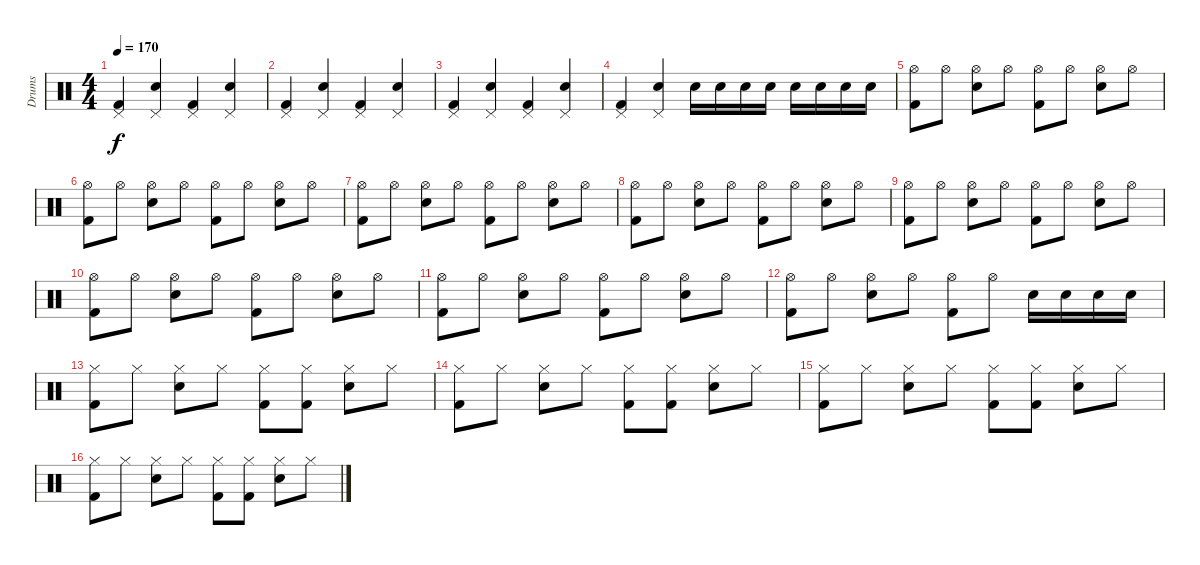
\track ("Drums" "Drums") {instrument percussion}
\staff {score}
\articulation defaults
\ts (4 4)
\tempo 170
\clef neutral
\ks c
("Pedal Hi-Hat (hit)" "Kick (hit) 2").4{dy f} ("Pedal Hi-Hat (hit)" "Snare (hit) 2").4 ("Pedal Hi-Hat (hit)" "Kick (hit) 2").4 ("Pedal Hi-Hat (hit)" "Snare (hit) 2").4 |
("Pedal Hi-Hat (hit)" "Kick (hit) 2").4 ("Pedal Hi-Hat (hit)" "Snare (hit) 2").4 ("Pedal Hi-Hat (hit)" "Kick (hit) 2").4 ("Pedal Hi-Hat (hit)" "Snare (hit) 2").4 |
("Pedal Hi-Hat (hit)" "Kick (hit) 2").4 ("Pedal Hi-Hat (hit)" "Snare (hit) 2").4 ("Pedal Hi-Hat (hit)" "Kick (hit) 2").4 ("Pedal Hi-Hat (hit)" "Snare (hit) 2").4 |
("Pedal Hi-Hat (hit)" "Kick (hit) 2").4 ("Pedal Hi-Hat (hit)" "Snare (hit) 2").4 "Snare (hit) 2".16 "Snare (hit) 2".16 "Snare (hit) 2".16 "Snare (hit) 2".16 "Snare (hit) 2".16 "Snare (hit) 2".16 "Snare (hit) 2".16 "Snare (hit) 2".16 |
("Kick (hit) 2" "Hi-Hat (open)").8 "Hi-Hat (open)".8 ("Snare (hit) 2" "Hi-Hat (open)").8 "Hi-Hat (open)".8 ("Kick (hit) 2" "Hi-Hat (open)").8 "Hi-Hat (open)".8 ("Snare (hit) 2" "Hi-Hat (open)").8 "Hi-Hat (open)".8 |
("Kick (hit) 2" "Hi-Hat (open)").8 "Hi-Hat (open)".8 ("Snare (hit) 2" "Hi-Hat (open)").8 "Hi-Hat (open)".8 ("Kick (hit) 2" "Hi-Hat (open)").8 "Hi-Hat (open)".8 ("Snare (hit) 2" "Hi-Hat (open)").8 "Hi-Hat (open)".8 |
("Kick (hit) 2" "Hi-Hat (open)").8 "Hi-Hat (open)".8 ("Snare (hit) 2" "Hi-Hat (open)").8 "Hi-Hat (open)".8 ("Kick (hit) 2" "Hi-Hat (open)").8 "Hi-Hat (open)".8 ("Snare (hit) 2" "Hi-Hat (open)").8 "Hi-Hat (open)".8 |
("Kick (hit) 2" "Hi-Hat (open)").8 "Hi-Hat (open)".8 ("Snare (hit) 2" "Hi-Hat (open)").8 "Hi-Hat (open)".8 ("Kick (hit) 2" "Hi-Hat (open)").8 "Hi-Hat (open)".8 ("Snare (hit) 2" "Hi-Hat (open)").8 "Hi-Hat (open)".8 |
("Kick (hit) 2" "Hi-Hat (open)").8 "Hi-Hat (open)".8 ("Snare (hit) 2" "Hi-Hat (open)").8 "Hi-Hat (open)".8 ("Kick (hit) 2" "Hi-Hat (open)").8 "Hi-Hat (open)".8 ("Snare (hit) 2" "Hi-Hat (open)").8 "Hi-Hat (open)".8 |
("Kick (hit) 2" "Hi-Hat (open)").8 "Hi-Hat (open)".8 ("Snare (hit) 2" "Hi-Hat (open)").8 "Hi-Hat (open)".8 ("Kick (hit) 2" "Hi-Hat (open)").8 "Hi-Hat (open)".8 ("Snare (hit) 2" "Hi-Hat (open)").8 "Hi-Hat (open)".8 |
("Kick (hit) 2" "Hi-Hat (open)").8 "Hi-Hat (open)".8 ("Snare (hit) 2" "Hi-Hat (open)").8 "Hi-Hat (open)".8 ("Kick (hit) 2" "Hi-Hat (open)").8 "Hi-Hat (open)".8 ("Snare (hit) 2" "Hi-Hat (open)").8 "Hi-Hat (open)".8 |
("Kick (hit) 2" "Hi-Hat (open)").8 "Hi-Hat (open)".8 ("Snare (hit) 2" "Hi-Hat (open)").8 "Hi-Hat (open)".8 ("Kick (hit) 2" "Hi-Hat (open)").8 "Hi-Hat (open)".8 "Snare (hit) 2".16 "Snare (hit) 2".16 "Snare (hit) 2".16 "Snare (hit) 2".16 |
("Hi-Hat (closed)" "Kick (hit) 2").8 "Hi-Hat (closed)".8 ("Hi-Hat (closed)" "Snare (hit) 2").8 "Hi-Hat (closed)".8 ("Hi-Hat (closed)" "Kick (hit) 2").8 ("Hi-Hat (closed)" "Kick (hit) 2").8 ("Hi-Hat (closed)" "Snare (hit) 2").8 "Hi-Hat (closed)".8 |
("Hi-Hat (closed)" "Kick (hit) 2").8 "Hi-Hat (closed)".8 ("Hi-Hat (closed)" "Snare (hit) 2").8 "Hi-Hat (closed)".8 ("Hi-Hat (closed)" "Kick (hit) 2").8 ("Hi-Hat (closed)" "Kick (hit) 2").8 ("Hi-Hat (closed)" "Snare (hit) 2").8 "Hi-Hat (closed)".8 |
("Hi-Hat (closed)" "Kick (hit) 2").8 "Hi-Hat (closed)".8 ("Hi-Hat (closed)" "Snare (hit) 2").8 "Hi-Hat (closed)".8 ("Hi-Hat (closed)" "Kick (hit) 2").8 ("Hi-Hat (closed)" "Kick (hit) 2").8 ("Hi-Hat (closed)" "Snare (hit) 2").8 "Hi-Hat (closed)".8 |
("Hi-Hat (closed)" "Kick (hit) 2").8 "Hi-Hat (closed)".8 ("Hi-Hat (closed)" "Snare (hit) 2").8 "Hi-Hat (closed)".8 ("Hi-Hat (closed)" "Kick (hit) 2").8 ("Hi-Hat (closed)" "Kick (hit) 2").8 ("Hi-Hat (closed)" "Snare (hit) 2").8 "Hi-Hat (closed)".8
